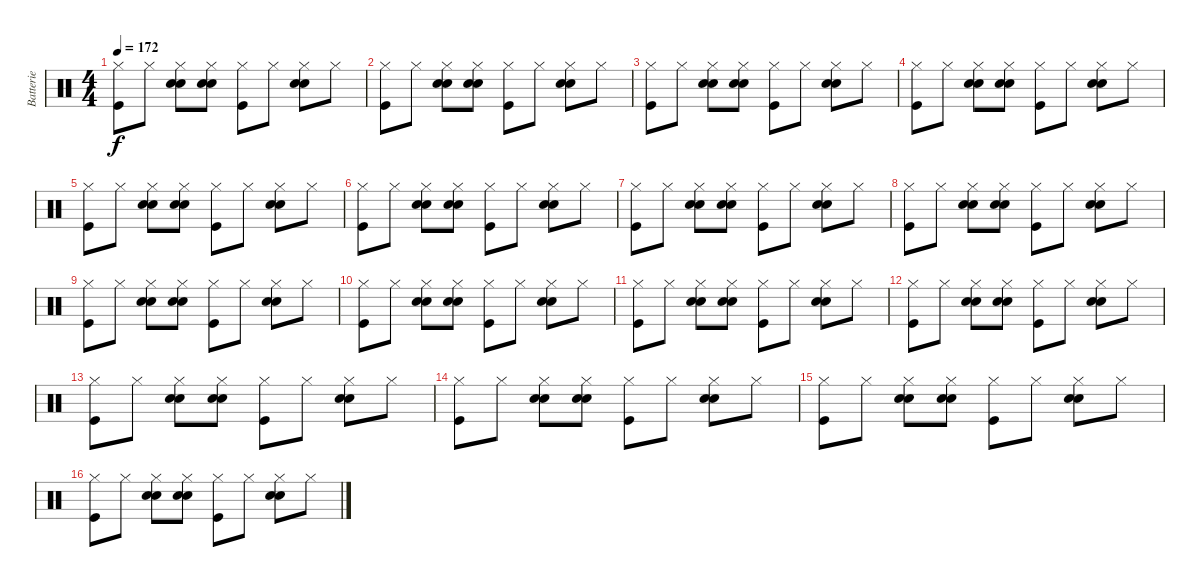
\track ("Batterie" "Batterie") {instrument percussion}
\staff {score}
\articulation defaults
\ts (4 4)
\tempo 172
\clef neutral
\ks c
("Hi-Hat (closed)" "Kick (hit)").8{dy f} "Hi-Hat (closed)".8 ("Electric Snare (hit)" "Hi-Hat (closed)" "Snare (hit) 2").8 ("Electric Snare (hit)" "Hi-Hat (closed)" "Snare (hit) 2").8 ("Hi-Hat (closed)" "Kick (hit)").8 "Hi-Hat (closed)".8 ("Electric Snare (hit)" "Hi-Hat (closed)" "Snare (hit) 2").8 "Hi-Hat (closed)".8 |
("Hi-Hat (closed)" "Kick (hit)").8 "Hi-Hat (closed)".8 ("Electric Snare (hit)" "Hi-Hat (closed)" "Snare (hit) 2").8 ("Electric Snare (hit)" "Hi-Hat (closed)" "Snare (hit) 2").8 ("Hi-Hat (closed)" "Kick (hit)").8 "Hi-Hat (closed)".8 ("Electric Snare (hit)" "Hi-Hat (closed)" "Snare (hit) 2").8 "Hi-Hat (closed)".8 |
("Hi-Hat (closed)" "Kick (hit)").8 "Hi-Hat (closed)".8 ("Electric Snare (hit)" "Hi-Hat (closed)" "Snare (hit) 2").8 ("Electric Snare (hit)" "Hi-Hat (closed)" "Snare (hit) 2").8 ("Hi-Hat (closed)" "Kick (hit)").8 "Hi-Hat (closed)".8 ("Electric Snare (hit)" "Hi-Hat (closed)" "Snare (hit) 2").8 "Hi-Hat (closed)".8 |
("Hi-Hat (closed)" "Kick (hit)").8 "Hi-Hat (closed)".8 ("Electric Snare (hit)" "Hi-Hat (closed)" "Snare (hit) 2").8 ("Electric Snare (hit)" "Hi-Hat (closed)" "Snare (hit) 2").8 ("Hi-Hat (closed)" "Kick (hit)").8 "Hi-Hat (closed)".8 ("Electric Snare (hit)" "Hi-Hat (closed)" "Snare (hit) 2").8 "Hi-Hat (closed)".8 |
("Hi-Hat (closed)" "Kick (hit)").8 "Hi-Hat (closed)".8 ("Electric Snare (hit)" "Hi-Hat (closed)" "Snare (hit) 2").8 ("Electric Snare (hit)" "Hi-Hat (closed)" "Snare (hit) 2").8 ("Hi-Hat (closed)" "Kick (hit)").8 "Hi-Hat (closed)".8 ("Electric Snare (hit)" "Hi-Hat (closed)" "Snare (hit) 2").8 "Hi-Hat (closed)".8 |
("Hi-Hat (closed)" "Kick (hit)").8 "Hi-Hat (closed)".8 ("Electric Snare (hit)" "Hi-Hat (closed)" "Snare (hit) 2").8 ("Electric Snare (hit)" "Hi-Hat (closed)" "Snare (hit) 2").8 ("Hi-Hat (closed)" "Kick (hit)").8 "Hi-Hat (closed)".8 ("Electric Snare (hit)" "Hi-Hat (closed)" "Snare (hit) 2").8 "Hi-Hat (closed)".8 |
("Hi-Hat (closed)" "Kick (hit)").8 "Hi-Hat (closed)".8 ("Electric Snare (hit)" "Hi-Hat (closed)" "Snare (hit) 2").8 ("Electric Snare (hit)" "Hi-Hat (closed)" "Snare (hit) 2").8 ("Hi-Hat (closed)" "Kick (hit)").8 "Hi-Hat (closed)".8 ("Electric Snare (hit)" "Hi-Hat (closed)" "Snare (hit) 2").8 "Hi-Hat (closed)".8 |
("Hi-Hat (closed)" "Kick (hit)").8 "Hi-Hat (closed)".8 ("Electric Snare (hit)" "Hi-Hat (closed)" "Snare (hit) 2").8 ("Electric Snare (hit)" "Hi-Hat (closed)" "Snare (hit) 2").8 ("Hi-Hat (closed)" "Kick (hit)").8 "Hi-Hat (closed)".8 ("Electric Snare (hit)" "Hi-Hat (closed)" "Snare (hit) 2").8 "Hi-Hat (closed)".8 |
("Hi-Hat (closed)" "Kick (hit)").8 "Hi-Hat (closed)".8 ("Electric Snare (hit)" "Hi-Hat (closed)" "Snare (hit) 2").8 ("Electric Snare (hit)" "Hi-Hat (closed)" "Snare (hit) 2").8 ("Hi-Hat (closed)" "Kick (hit)").8 "Hi-Hat (closed)".8 ("Electric Snare (hit)" "Hi-Hat (closed)" "Snare (hit) 2").8 "Hi-Hat (closed)".8 |
("Hi-Hat (closed)" "Kick (hit)").8 "Hi-Hat (closed)".8 ("Electric Snare (hit)" "Hi-Hat (closed)" "Snare (hit) 2").8 ("Electric Snare (hit)" "Hi-Hat (closed)" "Snare (hit) 2").8 ("Hi-Hat (closed)" "Kick (hit)").8 "Hi-Hat (closed)".8 ("Electric Snare (hit)" "Hi-Hat (closed)" "Snare (hit) 2").8 "Hi-Hat (closed)".8 |
("Hi-Hat (closed)" "Kick (hit)").8 "Hi-Hat (closed)".8 ("Electric Snare (hit)" "Hi-Hat (closed)" "Snare (hit) 2").8 ("Electric Snare (hit)" "Hi-Hat (closed)" "Snare (hit) 2").8 ("Hi-Hat (closed)" "Kick (hit)").8 "Hi-Hat (closed)".8 ("Electric Snare (hit)" "Hi-Hat (closed)" "Snare (hit) 2").8 "Hi-Hat (closed)".8 |
("Hi-Hat (closed)" "Kick (hit)").8 "Hi-Hat (closed)".8 ("Electric Snare (hit)" "Hi-Hat (closed)" "Snare (hit) 2").8 ("Electric Snare (hit)" "Hi-Hat (closed)" "Snare (hit) 2").8 ("Hi-Hat (closed)" "Kick (hit)").8 "Hi-Hat (closed)".8 ("Electric Snare (hit)" "Hi-Hat (closed)" "Snare (hit) 2").8 "Hi-Hat (closed)".8 |
("Hi-Hat (closed)" "Kick (hit)").8 "Hi-Hat (closed)".8 ("Electric Snare (hit)" "Hi-Hat (closed)" "Snare (hit) 2").8 ("Electric Snare (hit)" "Hi-Hat (closed)" "Snare (hit) 2").8 ("Hi-Hat (closed)" "Kick (hit)").8 "Hi-Hat (closed)".8 ("Electric Snare (hit)" "Hi-Hat (closed)" "Snare (hit) 2").8 "Hi-Hat (closed)".8 |
("Hi-Hat (closed)" "Kick (hit)").8 "Hi-Hat (closed)".8 ("Electric Snare (hit)" "Hi-Hat (closed)" "Snare (hit) 2").8 ("Electric Snare (hit)" "Hi-Hat (closed)" "Snare (hit) 2").8 ("Hi-Hat (closed)" "Kick (hit)").8 "Hi-Hat (closed)".8 ("Electric Snare (hit)" "Hi-Hat (closed)" "Snare (hit) 2").8 "Hi-Hat (closed)".8 |
("Hi-Hat (closed)" "Kick (hit)").8 "Hi-Hat (closed)".8 ("Electric Snare (hit)" "Hi-Hat (closed)" "Snare (hit) 2").8 ("Electric Snare (hit)" "Hi-Hat (closed)" "Snare (hit) 2").8 ("Hi-Hat (closed)" "Kick (hit)").8 "Hi-Hat (closed)".8 ("Electric Snare (hit)" "Hi-Hat (closed)" "Snare (hit) 2").8 "Hi-Hat (closed)".8 |
("Hi-Hat (closed)" "Kick (hit)").8 "Hi-Hat (closed)".8 ("Electric Snare (hit)" "Hi-Hat (closed)" "Snare (hit) 2").8 ("Electric Snare (hit)" "Hi-Hat (closed)" "Snare (hit) 2").8 ("Hi-Hat (closed)" "Kick (hit)").8 "Hi-Hat (closed)".8 ("Electric Snare (hit)" "Hi-Hat (closed)" "Snare (hit) 2").8 "Hi-Hat (closed)".8
